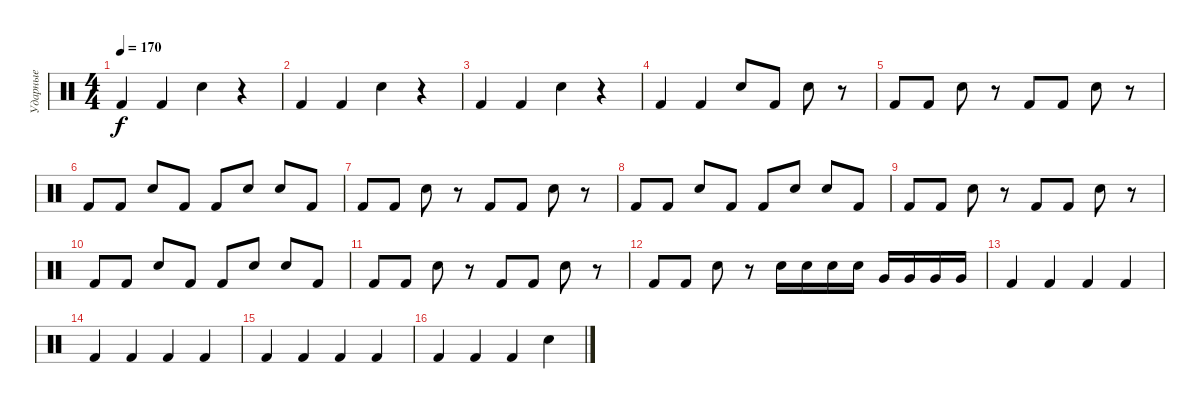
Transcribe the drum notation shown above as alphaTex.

\track ("Ударные" "Ударные") {instrument percussion}
\staff {score}
\articulation defaults
\ts (4 4)
\tempo 170
\clef neutral
\ks c "Kick (hit) 2".4{dy f} "Kick (hit) 2".4 "Snare (hit) 2".4
r.4 |
"Kick (hit) 2".4 "Kick (hit) 2".4 "Snare (hit) 2".4 r.4 |
"Kick (hit) 2".4 "Kick (hit) 2".4 "Snare (hit) 2".4 r.4 |
"Kick (hit) 2".4 "Kick (hit) 2".4 "Snare (hit) 2".8 "Kick (hit) 2".8 "Snare (hit) 2".8 r.8 |
"Kick (hit) 2".8 "Kick (hit) 2".8 "Snare (hit) 2".8 r.8 "Kick (hit) 2".8 "Kick (hit) 2".8 "Snare (hit) 2".8 r.8 |
"Kick (hit) 2".8 "Kick (hit) 2".8 "Snare (hit) 2".8 "Kick (hit) 2".8 "Kick (hit) 2".8 "Snare (hit) 2".8 "Snare (hit) 2".8 "Kick (hit) 2".8 |
"Kick (hit) 2".8 "Kick (hit) 2".8 "Snare (hit) 2".8 r.8 "Kick (hit) 2".8 "Kick (hit) 2".8 "Snare (hit) 2".8 r.8 |
"Kick (hit) 2".8 "Kick (hit) 2".8 "Snare (hit) 2".8 "Kick (hit) 2".8 "Kick (hit) 2".8 "Snare (hit) 2".8 "Snare (hit) 2".8 "Kick (hit) 2".8 |
"Kick (hit) 2".8 "Kick (hit) 2".8 "Snare (hit) 2".8 r.8 "Kick (hit) 2".8 "Kick (hit) 2".8 "Snare (hit) 2".8 r.8 |
"Kick (hit) 2".8 "Kick (hit) 2".8 "Snare (hit) 2".8 "Kick (hit) 2".8 "Kick (hit) 2".8 "Snare (hit) 2".8 "Snare (hit) 2".8 "Kick (hit) 2".8 |
"Kick (hit) 2".8 "Kick (hit) 2".8 "Snare (hit) 2".8 r.8 "Kick (hit) 2".8 "Kick (hit) 2".8 "Snare (hit) 2".8 r.8 |
"Kick (hit) 2".8 "Kick (hit) 2".8 "Snare (hit) 2".8 r.8 "Snare (hit) 2".16 "Snare (hit) 2".16 "Snare (hit) 2".16 "Snare (hit) 2".16 "Very Low Tom (hit)".16 "Very Low Tom (hit)".16 "Very Low Tom (hit)".16 "Very Low Tom (hit)".16 |
"Kick (hit) 2".4 "Kick (hit) 2".4 "Kick (hit) 2".4 "Kick (hit) 2".4 |
"Kick (hit) 2".4 "Kick (hit) 2".4 "Kick (hit) 2".4 "Kick (hit) 2".4 |
"Kick (hit) 2".4 "Kick (hit) 2".4 "Kick (hit) 2".4 "Kick (hit) 2".4 |
"Kick (hit) 2".4 "Kick (hit) 2".4 "Kick (hit) 2".4 "Snare (hit) 2".4
